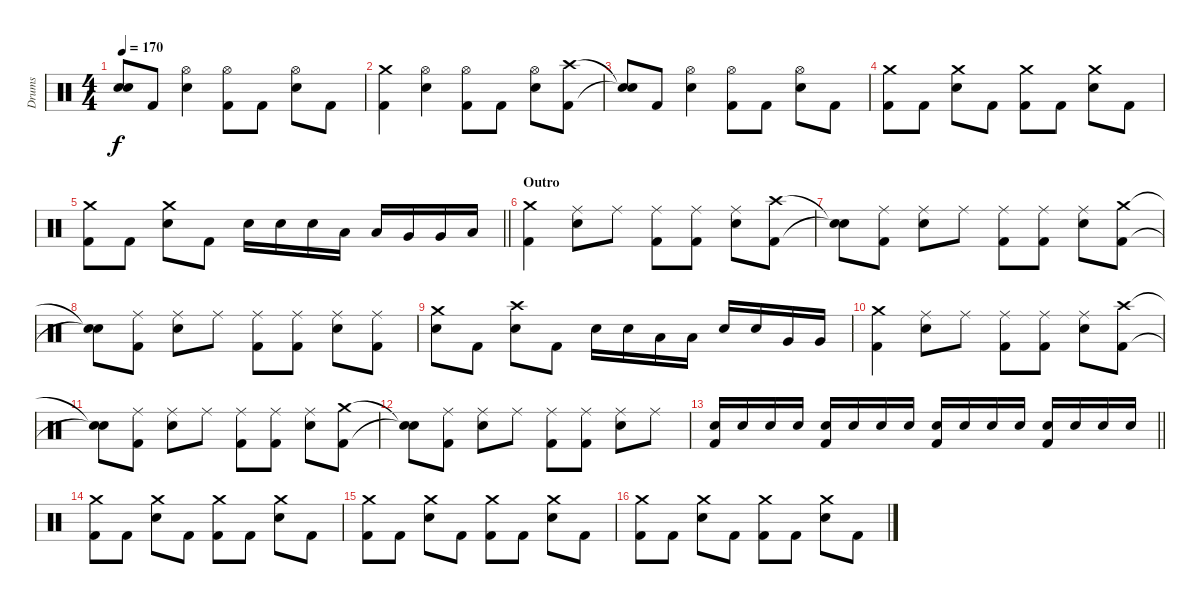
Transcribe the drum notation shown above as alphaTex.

\track ("Drums" "Drums") {instrument percussion}
\staff {score}
\articulation defaults
\ts (4 4)
\tempo 170
\clef neutral
\ks c
("Snare (hit)"{t} "Snare (hit)"{t}).8{dy f} "Kick (hit) 2".8 ("Hi-Hat (open)" "Electric Snare (hit)").4 ("Hi-Hat (open)" "Kick (hit) 2").8 "Kick (hit) 2".8 ("Hi-Hat (open)" "Electric Snare (hit)").8 "Kick (hit) 2".8 |
("Crash medium (hit)" "Kick (hit) 2").4 ("Hi-Hat (open)" "Electric Snare (hit)").4 ("Hi-Hat (open)" "Kick (hit) 2").8 "Kick (hit) 2".8 ("Hi-Hat (open)" "Electric Snare (hit)").8 ("Crash high (hit)" "Kick (hit) 2").8 |
("Snare (hit)"{t} "Snare (hit)"{t}).8 "Kick (hit) 2".8 ("Hi-Hat (open)" "Electric Snare (hit)").4 ("Hi-Hat (open)" "Kick (hit) 2").8 "Kick (hit) 2".8 ("Hi-Hat (open)" "Electric Snare (hit)").8 "Kick (hit) 2".8 |
("Crash medium (hit)" "Kick (hit) 2").8 "Kick (hit) 2".8 ("Crash medium (hit)" "Electric Snare (hit)").8 "Kick (hit) 2".8 ("Crash medium (hit)" "Kick (hit) 2").8 "Kick (hit) 2".8 ("Crash medium (hit)" "Electric Snare (hit)").8 "Kick (hit) 2".8 |
\barLineRight lightlight
("Crash medium (hit)" "Kick (hit) 2").8 "Kick (hit) 2".8 ("Crash medium (hit)" "Electric Snare (hit)").8 "Kick (hit) 2".8 "Electric Snare (hit)".16 "Electric Snare (hit)".16 "Electric Snare (hit)".16 "Low Tom (hit)".16 "Low Tom (hit)".16 "Very Low Tom (hit)".16 "Very Low Tom (hit)".16 "Low Floor Tom (hit)".16 |
\section ("" "Outro")
("Crash medium (hit)" "Kick (hit) 2").4 ("Ride (middle)" "Electric Snare (hit)").8 "Ride (middle)".8 ("Ride (middle)" "Kick (hit) 2").8 ("Ride (middle)" "Kick (hit) 2").8 ("Ride (middle)" "Electric Snare (hit)").8 ("Crash high (hit)" "Kick (hit) 2").8 |
("Snare (hit)"{t} "Snare (hit)"{t}).8 ("Ride (middle)" "Kick (hit) 2").8 ("Ride (middle)" "Electric Snare (hit)").8 "Ride (middle)".8 ("Ride (middle)" "Kick (hit) 2").8 ("Ride (middle)" "Kick (hit) 2").8 ("Ride (middle)" "Electric Snare (hit)").8 ("Crash medium (hit)" "Kick (hit) 2").8 |
("Snare (hit)"{t} "Snare (hit)"{t}).8 ("Ride (middle)" "Kick (hit) 2").8 ("Ride (middle)" "Electric Snare (hit)").8 "Ride (middle)".8 ("Ride (middle)" "Kick (hit) 2").8 ("Ride (middle)" "Kick (hit) 2").8 ("Ride (middle)" "Electric Snare (hit)").8 ("Ride (middle)" "Kick (hit) 2").8 |
("Crash medium (hit)" "Electric Snare (hit)").8 "Kick (hit) 2".8 ("Crash high (hit)" "Electric Snare (hit)").8 "Kick (hit) 2".8 "Electric Snare (hit)".16 "Electric Snare (hit)".16 "Low Tom (hit)".16 "Low Tom (hit)".16 "Electric Snare (hit)".16 "Electric Snare (hit)".16 "Very Low Tom (hit)".16 "Very Low Tom (hit)".16 |
("Crash medium (hit)" "Kick (hit) 2").4 ("Ride (middle)" "Electric Snare (hit)").8 "Ride (middle)".8 ("Ride (middle)" "Kick (hit) 2").8 ("Ride (middle)" "Kick (hit) 2").8 ("Ride (middle)" "Electric Snare (hit)").8 ("Crash high (hit)" "Kick (hit) 2").8 |
("Snare (hit)"{t} "Snare (hit)"{t}).8 ("Ride (middle)" "Kick (hit) 2").8 ("Ride (middle)" "Electric Snare (hit)").8 "Ride (middle)".8 ("Ride (middle)" "Kick (hit) 2").8 ("Ride (middle)" "Kick (hit) 2").8 ("Ride (middle)" "Electric Snare (hit)").8 ("Crash medium (hit)" "Kick (hit) 2").8 |
("Snare (hit)"{t} "Snare (hit)"{t}).8 ("Ride (middle)" "Kick (hit) 2").8 ("Ride (middle)" "Electric Snare (hit)").8 "Ride (middle)".8 ("Ride (middle)" "Kick (hit) 2").8 ("Ride (middle)" "Kick (hit) 2").8 ("Ride (middle)" "Electric Snare (hit)").8 "Ride (middle)".8 |
\barLineRight lightlight
("Electric Snare (hit)" "Kick (hit) 2").16 "Electric Snare (hit)".16 "Electric Snare (hit)".16 "Electric Snare (hit)".16 ("Electric Snare (hit)" "Kick (hit) 2").16 "Electric Snare (hit)".16 "Electric Snare (hit)".16 "Electric Snare (hit)".16 ("Electric Snare (hit)" "Kick (hit) 2").16 "Electric Snare (hit)".16 "Electric Snare (hit)".16 "Electric Snare (hit)".16 ("Electric Snare (hit)" "Kick (hit) 2").16 "Electric Snare (hit)".16 "Electric Snare (hit)".16 "Electric Snare (hit)".16 |
("Crash medium (hit)" "Kick (hit) 2").8 "Kick (hit) 2".8 ("Crash medium (hit)" "Electric Snare (hit)").8 "Kick (hit) 2".8 ("Crash medium (hit)" "Kick (hit) 2").8 "Kick (hit) 2".8 ("Crash medium (hit)" "Electric Snare (hit)").8 "Kick (hit) 2".8 |
("Crash medium (hit)" "Kick (hit) 2").8 "Kick (hit) 2".8 ("Crash medium (hit)" "Electric Snare (hit)").8 "Kick (hit) 2".8 ("Crash medium (hit)" "Kick (hit) 2").8 "Kick (hit) 2".8 ("Crash medium (hit)" "Electric Snare (hit)").8 "Kick (hit) 2".8 |
("Crash medium (hit)" "Kick (hit) 2").8 "Kick (hit) 2".8 ("Crash medium (hit)" "Electric Snare (hit)").8 "Kick (hit) 2".8 ("Crash medium (hit)" "Kick (hit) 2").8 "Kick (hit) 2".8 ("Crash medium (hit)" "Electric Snare (hit)").8 "Kick (hit) 2".8
